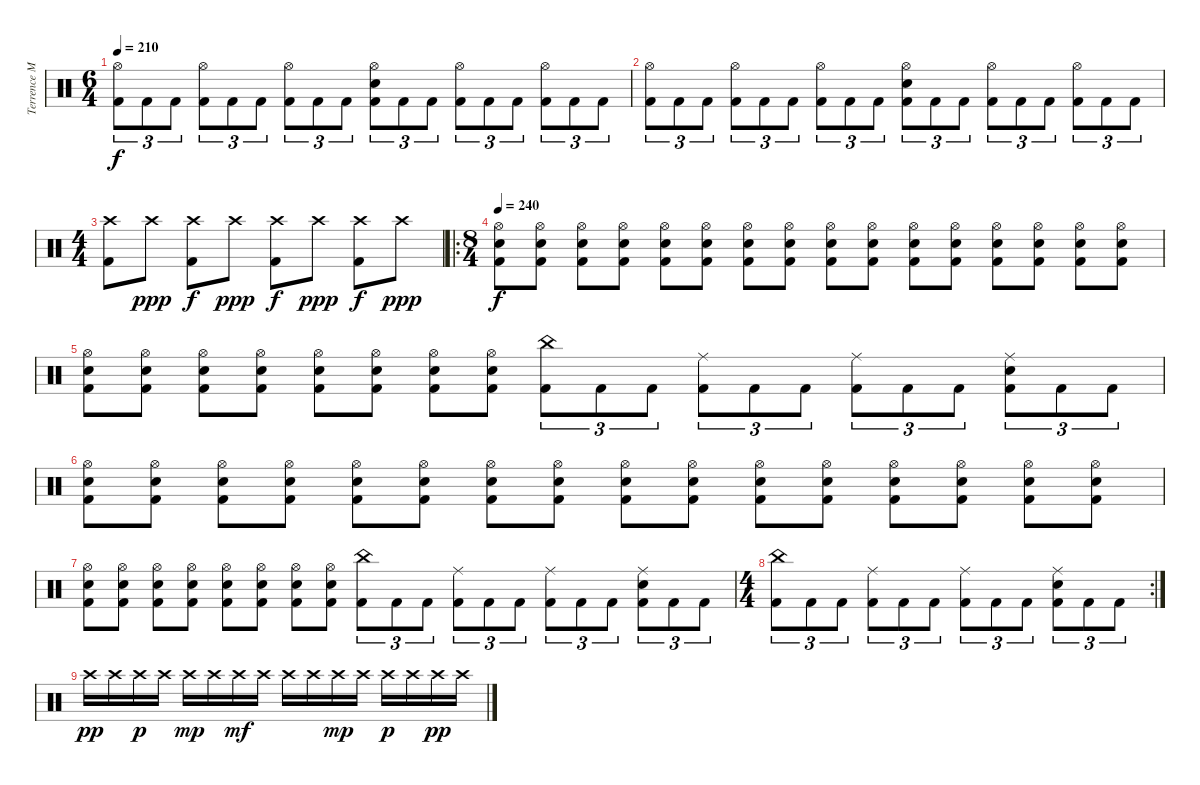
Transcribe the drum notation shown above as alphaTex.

\track ("Terrence Manauis" "Terrence M") {instrument percussion}
\staff {score}
\articulation defaults
\ts (6 4)
\tempo 210
\clef neutral
\ks c
("Hi-Hat (open)" "Kick (hit) 2").8{tu (3 2) dy f} "Kick (hit) 2".8{tu (3 2)} "Kick (hit) 2".8{tu (3 2)} ("Hi-Hat (open)" "Kick (hit) 2").8{tu (3 2)} "Kick (hit) 2".8{tu (3 2)} "Kick (hit) 2".8{tu (3 2)} ("Hi-Hat (open)" "Kick (hit) 2").8{tu (3 2)} "Kick (hit) 2".8{tu (3 2)} "Kick (hit) 2".8{tu (3 2)} ("Hi-Hat (open)" "Electric Snare (hit)" "Kick (hit) 2").8{tu (3 2)} "Kick (hit) 2".8{tu (3 2)} "Kick (hit) 2".8{tu (3 2)} ("Hi-Hat (open)" "Kick (hit) 2").8{tu (3 2)} "Kick (hit) 2".8{tu (3 2)} "Kick (hit) 2".8{tu (3 2)} ("Hi-Hat (open)" "Kick (hit) 2").8{tu (3 2)} "Kick (hit) 2".8{tu (3 2)} "Kick (hit) 2".8{tu (3 2)} |
("Hi-Hat (open)" "Kick (hit) 2").8{tu (3 2)} "Kick (hit) 2".8{tu (3 2)} "Kick (hit) 2".8{tu (3 2)} ("Hi-Hat (open)" "Kick (hit) 2").8{tu (3 2)} "Kick (hit) 2".8{tu (3 2)} "Kick (hit) 2".8{tu (3 2)} ("Hi-Hat (open)" "Kick (hit) 2").8{tu (3 2)} "Kick (hit) 2".8{tu (3 2)} "Kick (hit) 2".8{tu (3 2)} ("Hi-Hat (open)" "Electric Snare (hit)" "Kick (hit) 2").8{tu (3 2)} "Kick (hit) 2".8{tu (3 2)} "Kick (hit) 2".8{tu (3 2)} ("Hi-Hat (open)" "Kick (hit) 2").8{tu (3 2)} "Kick (hit) 2".8{tu (3 2)} "Kick (hit) 2".8{tu (3 2)} ("Hi-Hat (open)" "Kick (hit) 2").8{tu (3 2)} "Kick (hit) 2".8{tu (3 2)} "Kick (hit) 2".8{tu (3 2)} |
\ts (4 4)
("Crash high (hit)" "Kick (hit) 2").8 "Crash high (hit)".8{dy ppp} ("Crash high (hit)" "Kick (hit) 2").8{dy f} "Crash high (hit)".8{dy ppp} ("Crash high (hit)" "Kick (hit) 2").8{dy f} "Crash high (hit)".8{dy ppp} ("Crash high (hit)" "Kick (hit) 2").8{dy f} "Crash high (hit)".8{dy ppp} |
\ro
\ts (8 4)
\tempo 240
("Hi-Hat (open)" "Electric Snare (hit)" "Kick (hit) 2").8{dy f} ("Hi-Hat (open)" "Electric Snare (hit)" "Kick (hit) 2").8 ("Hi-Hat (open)" "Electric Snare (hit)" "Kick (hit) 2").8 ("Hi-Hat (open)" "Electric Snare (hit)" "Kick (hit) 2").8 ("Hi-Hat (open)" "Electric Snare (hit)" "Kick (hit) 2").8 ("Hi-Hat (open)" "Electric Snare (hit)" "Kick (hit) 2").8 ("Hi-Hat (open)" "Electric Snare (hit)" "Kick (hit) 2").8 ("Hi-Hat (open)" "Electric Snare (hit)" "Kick (hit) 2").8 ("Hi-Hat (open)" "Electric Snare (hit)" "Kick (hit) 2").8 ("Hi-Hat (open)" "Electric Snare (hit)" "Kick (hit) 2").8 ("Hi-Hat (open)" "Electric Snare (hit)" "Kick (hit) 2").8 ("Hi-Hat (open)" "Electric Snare (hit)" "Kick (hit) 2").8 ("Hi-Hat (open)" "Electric Snare (hit)" "Kick (hit) 2").8 ("Hi-Hat (open)" "Electric Snare (hit)" "Kick (hit) 2").8 ("Hi-Hat (open)" "Electric Snare (hit)" "Kick (hit) 2").8 ("Hi-Hat (open)" "Electric Snare (hit)" "Kick (hit) 2").8 |
("Hi-Hat (open)" "Electric Snare (hit)" "Kick (hit) 2").8 ("Hi-Hat (open)" "Electric Snare (hit)" "Kick (hit) 2").8 ("Hi-Hat (open)" "Electric Snare (hit)" "Kick (hit) 2").8 ("Hi-Hat (open)" "Electric Snare (hit)" "Kick (hit) 2").8 ("Hi-Hat (open)" "Electric Snare (hit)" "Kick (hit) 2").8 ("Hi-Hat (open)" "Electric Snare (hit)" "Kick (hit) 2").8 ("Hi-Hat (open)" "Electric Snare (hit)" "Kick (hit) 2").8 ("Hi-Hat (open)" "Electric Snare (hit)" "Kick (hit) 2").8 ("China (hit)" "Kick (hit) 2").8{tu (3 2)} "Kick (hit) 2".8{tu (3 2)} "Kick (hit) 2".8{tu (3 2)} ("Ride (middle)" "Kick (hit) 2").8{tu (3 2)} "Kick (hit) 2".8{tu (3 2)} "Kick (hit) 2".8{tu (3 2)} ("Ride (middle)" "Kick (hit) 2").8{tu (3 2)} "Kick (hit) 2".8{tu (3 2)} "Kick (hit) 2".8{tu (3 2)} ("Ride (middle)" "Electric Snare (hit)" "Kick (hit) 2").8{tu (3 2)} "Kick (hit) 2".8{tu (3 2)} "Kick (hit) 2".8{tu (3 2)} |
("Hi-Hat (open)" "Electric Snare (hit)" "Kick (hit) 2").8 ("Hi-Hat (open)" "Electric Snare (hit)" "Kick (hit) 2").8 ("Hi-Hat (open)" "Electric Snare (hit)" "Kick (hit) 2").8 ("Hi-Hat (open)" "Electric Snare (hit)" "Kick (hit) 2").8 ("Hi-Hat (open)" "Electric Snare (hit)" "Kick (hit) 2").8 ("Hi-Hat (open)" "Electric Snare (hit)" "Kick (hit) 2").8 ("Hi-Hat (open)" "Electric Snare (hit)" "Kick (hit) 2").8 ("Hi-Hat (open)" "Electric Snare (hit)" "Kick (hit) 2").8 ("Hi-Hat (open)" "Electric Snare (hit)" "Kick (hit) 2").8 ("Hi-Hat (open)" "Electric Snare (hit)" "Kick (hit) 2").8 ("Hi-Hat (open)" "Electric Snare (hit)" "Kick (hit) 2").8 ("Hi-Hat (open)" "Electric Snare (hit)" "Kick (hit) 2").8 ("Hi-Hat (open)" "Electric Snare (hit)" "Kick (hit) 2").8 ("Hi-Hat (open)" "Electric Snare (hit)" "Kick (hit) 2").8 ("Hi-Hat (open)" "Electric Snare (hit)" "Kick (hit) 2").8 ("Hi-Hat (open)" "Electric Snare (hit)" "Kick (hit) 2").8 |
("Hi-Hat (open)" "Electric Snare (hit)" "Kick (hit) 2").8 ("Hi-Hat (open)" "Electric Snare (hit)" "Kick (hit) 2").8 ("Hi-Hat (open)" "Electric Snare (hit)" "Kick (hit) 2").8 ("Hi-Hat (open)" "Electric Snare (hit)" "Kick (hit) 2").8 ("Hi-Hat (open)" "Electric Snare (hit)" "Kick (hit) 2").8 ("Hi-Hat (open)" "Electric Snare (hit)" "Kick (hit) 2").8 ("Hi-Hat (open)" "Electric Snare (hit)" "Kick (hit) 2").8 ("Hi-Hat (open)" "Electric Snare (hit)" "Kick (hit) 2").8 ("China (hit)" "Kick (hit) 2").8{tu (3 2)} "Kick (hit) 2".8{tu (3 2)} "Kick (hit) 2".8{tu (3 2)} ("Ride (middle)" "Kick (hit) 2").8{tu (3 2)} "Kick (hit) 2".8{tu (3 2)} "Kick (hit) 2".8{tu (3 2)} ("Ride (middle)" "Kick (hit) 2").8{tu (3 2)} "Kick (hit) 2".8{tu (3 2)} "Kick (hit) 2".8{tu (3 2)} ("Ride (middle)" "Electric Snare (hit)" "Kick (hit) 2").8{tu (3 2)} "Kick (hit) 2".8{tu (3 2)} "Kick (hit) 2".8{tu (3 2)} |
\rc 2
\ts (4 4)
("China (hit)" "Kick (hit) 2").8{tu (3 2)} "Kick (hit) 2".8{tu (3 2)} "Kick (hit) 2".8{tu (3 2)} ("Ride (middle)" "Kick (hit) 2").8{tu (3 2)} "Kick (hit) 2".8{tu (3 2)} "Kick (hit) 2".8{tu (3 2)} ("Ride (middle)" "Kick (hit) 2").8{tu (3 2)} "Kick (hit) 2".8{tu (3 2)} "Kick (hit) 2".8{tu (3 2)} ("Ride (middle)" "Electric Snare (hit)" "Kick (hit) 2").8{tu (3 2)} "Kick (hit) 2".8{tu (3 2)} "Kick (hit) 2".8{tu (3 2)} |
"Crash high (hit)".16{dy pp} "Crash high (hit)".16 "Crash high (hit)".16{dy p} "Crash high (hit)".16 "Crash high (hit)".16{dy mp} "Crash high (hit)".16 "Crash high (hit)".16{dy mf} "Crash high (hit)".16 "Crash high (hit)".16 "Crash high (hit)".16 "Crash high (hit)".16{dy mp} "Crash high (hit)".16 "Crash high (hit)".16{dy p} "Crash high (hit)".16 "Crash high (hit)".16{dy pp} "Crash high (hit)".16
